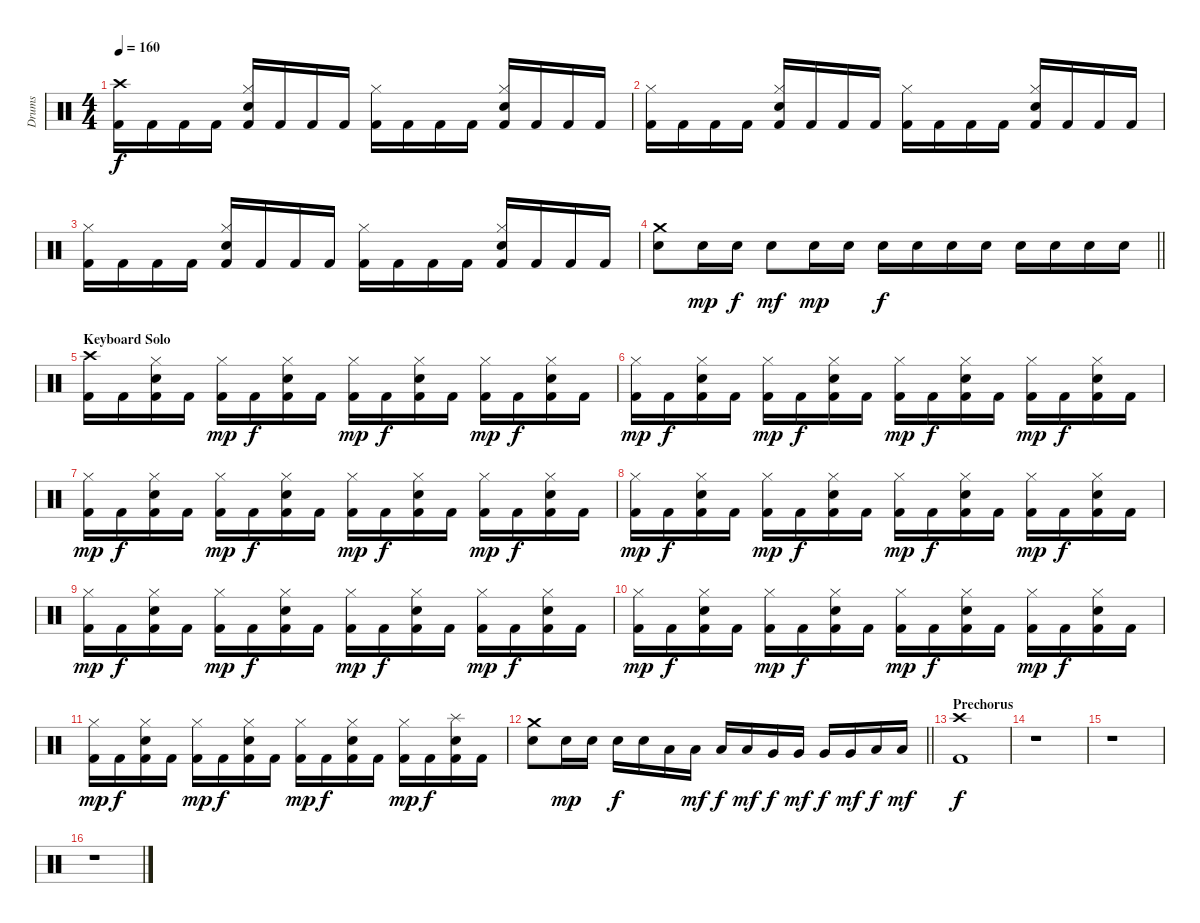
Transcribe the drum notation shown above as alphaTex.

\track ("Drums" "Drums") {instrument percussion}
\staff {score}
\articulation defaults
\ts (4 4)
\tempo 160
\clef neutral
\ks c
("Kick (hit) 2" "Crash high (hit)").16{dy f} "Kick (hit) 2".16 "Kick (hit) 2".16 "Kick (hit) 2".16 ("Kick (hit) 2" "Hi-Hat (closed)" "Electric Snare (hit)").16 "Kick (hit) 2".16 "Kick (hit) 2".16 "Kick (hit) 2".16 ("Kick (hit) 2" "Hi-Hat (closed)").16 "Kick (hit) 2".16 "Kick (hit) 2".16 "Kick (hit) 2".16 ("Kick (hit) 2" "Hi-Hat (closed)" "Electric Snare (hit)").16 "Kick (hit) 2".16 "Kick (hit) 2".16 "Kick (hit) 2".16 |
("Kick (hit) 2" "Hi-Hat (closed)").16 "Kick (hit) 2".16 "Kick (hit) 2".16 "Kick (hit) 2".16 ("Kick (hit) 2" "Hi-Hat (closed)" "Electric Snare (hit)").16 "Kick (hit) 2".16 "Kick (hit) 2".16 "Kick (hit) 2".16 ("Kick (hit) 2" "Hi-Hat (closed)").16 "Kick (hit) 2".16 "Kick (hit) 2".16 "Kick (hit) 2".16 ("Kick (hit) 2" "Hi-Hat (closed)" "Electric Snare (hit)").16 "Kick (hit) 2".16 "Kick (hit) 2".16 "Kick (hit) 2".16 |
("Kick (hit) 2" "Hi-Hat (closed)").16 "Kick (hit) 2".16 "Kick (hit) 2".16 "Kick (hit) 2".16 ("Kick (hit) 2" "Hi-Hat (closed)" "Electric Snare (hit)").16 "Kick (hit) 2".16 "Kick (hit) 2".16 "Kick (hit) 2".16 ("Kick (hit) 2" "Hi-Hat (closed)").16 "Kick (hit) 2".16 "Kick (hit) 2".16 "Kick (hit) 2".16 ("Kick (hit) 2" "Hi-Hat (closed)" "Electric Snare (hit)").16 "Kick (hit) 2".16 "Kick (hit) 2".16 "Kick (hit) 2".16 |
\barLineRight lightlight
("Crash medium (hit)" "Electric Snare (hit)").8 "Electric Snare (hit)".16{dy mp} "Electric Snare (hit)".16{dy f} "Electric Snare (hit)".8{dy mf} "Electric Snare (hit)".16{dy mp} "Electric Snare (hit)".16 "Electric Snare (hit)".16{dy f} "Electric Snare (hit)".16 "Electric Snare (hit)".16 "Electric Snare (hit)".16 "Electric Snare (hit)".16 "Electric Snare (hit)".16 "Electric Snare (hit)".16 "Electric Snare (hit)".16 |
\section ("" "Keyboard Solo")
("Kick (hit) 2" "Crash high (hit)").16 "Kick (hit) 2".16 ("Kick (hit) 2" "Hi-Hat (closed)" "Electric Snare (hit)").16 "Kick (hit) 2".16 ("Kick (hit) 2" "Hi-Hat (closed)").16{dy mp} "Kick (hit) 2".16{dy f} ("Kick (hit) 2" "Hi-Hat (closed)" "Electric Snare (hit)").16 "Kick (hit) 2".16 ("Kick (hit) 2" "Hi-Hat (closed)").16{dy mp} "Kick (hit) 2".16{dy f} ("Kick (hit) 2" "Hi-Hat (closed)" "Electric Snare (hit)").16 "Kick (hit) 2".16 ("Kick (hit) 2" "Hi-Hat (closed)").16{dy mp} "Kick (hit) 2".16{dy f} ("Kick (hit) 2" "Hi-Hat (closed)" "Electric Snare (hit)").16 "Kick (hit) 2".16 |
("Kick (hit) 2" "Hi-Hat (closed)").16{dy mp} "Kick (hit) 2".16{dy f} ("Kick (hit) 2" "Hi-Hat (closed)" "Electric Snare (hit)").16 "Kick (hit) 2".16 ("Kick (hit) 2" "Hi-Hat (closed)").16{dy mp} "Kick (hit) 2".16{dy f} ("Kick (hit) 2" "Hi-Hat (closed)" "Electric Snare (hit)").16 "Kick (hit) 2".16 ("Kick (hit) 2" "Hi-Hat (closed)").16{dy mp} "Kick (hit) 2".16{dy f} ("Kick (hit) 2" "Hi-Hat (closed)" "Electric Snare (hit)").16 "Kick (hit) 2".16 ("Kick (hit) 2" "Hi-Hat (closed)").16{dy mp} "Kick (hit) 2".16{dy f} ("Kick (hit) 2" "Hi-Hat (closed)" "Electric Snare (hit)").16 "Kick (hit) 2".16 |
("Kick (hit) 2" "Hi-Hat (closed)").16{dy mp} "Kick (hit) 2".16{dy f} ("Kick (hit) 2" "Hi-Hat (closed)" "Electric Snare (hit)").16 "Kick (hit) 2".16 ("Kick (hit) 2" "Hi-Hat (closed)").16{dy mp} "Kick (hit) 2".16{dy f} ("Kick (hit) 2" "Hi-Hat (closed)" "Electric Snare (hit)").16 "Kick (hit) 2".16 ("Kick (hit) 2" "Hi-Hat (closed)").16{dy mp} "Kick (hit) 2".16{dy f} ("Kick (hit) 2" "Hi-Hat (closed)" "Electric Snare (hit)").16 "Kick (hit) 2".16 ("Kick (hit) 2" "Hi-Hat (closed)").16{dy mp} "Kick (hit) 2".16{dy f} ("Kick (hit) 2" "Hi-Hat (closed)" "Electric Snare (hit)").16 "Kick (hit) 2".16 |
("Kick (hit) 2" "Hi-Hat (closed)").16{dy mp} "Kick (hit) 2".16{dy f} ("Kick (hit) 2" "Hi-Hat (closed)" "Electric Snare (hit)").16 "Kick (hit) 2".16 ("Kick (hit) 2" "Hi-Hat (closed)").16{dy mp} "Kick (hit) 2".16{dy f} ("Kick (hit) 2" "Hi-Hat (closed)" "Electric Snare (hit)").16 "Kick (hit) 2".16 ("Kick (hit) 2" "Hi-Hat (closed)").16{dy mp} "Kick (hit) 2".16{dy f} ("Kick (hit) 2" "Hi-Hat (closed)" "Electric Snare (hit)").16 "Kick (hit) 2".16 ("Kick (hit) 2" "Hi-Hat (closed)").16{dy mp} "Kick (hit) 2".16{dy f} ("Kick (hit) 2" "Hi-Hat (closed)" "Electric Snare (hit)").16 "Kick (hit) 2".16 |
("Kick (hit) 2" "Hi-Hat (closed)").16{dy mp} "Kick (hit) 2".16{dy f} ("Kick (hit) 2" "Hi-Hat (closed)" "Electric Snare (hit)").16 "Kick (hit) 2".16 ("Kick (hit) 2" "Hi-Hat (closed)").16{dy mp} "Kick (hit) 2".16{dy f} ("Kick (hit) 2" "Hi-Hat (closed)" "Electric Snare (hit)").16 "Kick (hit) 2".16 ("Kick (hit) 2" "Hi-Hat (closed)").16{dy mp} "Kick (hit) 2".16{dy f} ("Kick (hit) 2" "Hi-Hat (closed)" "Electric Snare (hit)").16 "Kick (hit) 2".16 ("Kick (hit) 2" "Hi-Hat (closed)").16{dy mp} "Kick (hit) 2".16{dy f} ("Kick (hit) 2" "Hi-Hat (closed)" "Electric Snare (hit)").16 "Kick (hit) 2".16 |
("Kick (hit) 2" "Hi-Hat (closed)").16{dy mp} "Kick (hit) 2".16{dy f} ("Kick (hit) 2" "Hi-Hat (closed)" "Electric Snare (hit)").16 "Kick (hit) 2".16 ("Kick (hit) 2" "Hi-Hat (closed)").16{dy mp} "Kick (hit) 2".16{dy f} ("Kick (hit) 2" "Hi-Hat (closed)" "Electric Snare (hit)").16 "Kick (hit) 2".16 ("Kick (hit) 2" "Hi-Hat (closed)").16{dy mp} "Kick (hit) 2".16{dy f} ("Kick (hit) 2" "Hi-Hat (closed)" "Electric Snare (hit)").16 "Kick (hit) 2".16 ("Kick (hit) 2" "Hi-Hat (closed)").16{dy mp} "Kick (hit) 2".16{dy f} ("Kick (hit) 2" "Hi-Hat (closed)" "Electric Snare (hit)").16 "Kick (hit) 2".16 |
("Kick (hit) 2" "Hi-Hat (closed)").16{dy mp} "Kick (hit) 2".16{dy f} ("Kick (hit) 2" "Hi-Hat (closed)" "Electric Snare (hit)").16 "Kick (hit) 2".16 ("Kick (hit) 2" "Hi-Hat (closed)").16{dy mp} "Kick (hit) 2".16{dy f} ("Kick (hit) 2" "Hi-Hat (closed)" "Electric Snare (hit)").16 "Kick (hit) 2".16 ("Kick (hit) 2" "Hi-Hat (closed)").16{dy mp} "Kick (hit) 2".16{dy f} ("Kick (hit) 2" "Hi-Hat (closed)" "Electric Snare (hit)").16 "Kick (hit) 2".16 ("Kick (hit) 2" "Hi-Hat (closed)").16{dy mp} "Kick (hit) 2".16{dy f} ("Kick (hit) 2" "Splash (hit)" "Electric Snare (hit)").16 "Kick (hit) 2".16 |
\barLineRight lightlight
("Crash medium (hit)" "Electric Snare (hit)").8 "Electric Snare (hit)".16{dy mp} "Electric Snare (hit)".16 "Electric Snare (hit)".16{dy f} "Electric Snare (hit)".16 "Low Tom (hit)".16 "Low Tom (hit)".16{dy mf} "Low Tom (hit)".16{dy f} "Low Tom (hit)".16{dy mf} "Very Low Tom (hit)".16{dy f} "Very Low Tom (hit)".16{dy mf} "Very Low Tom (hit)".16{dy f} "Very Low Tom (hit)".16{dy mf} "Low Floor Tom (hit)".16{dy f} "Low Floor Tom (hit)".16{dy mf} |
\section ("" "Prechorus")
("Kick (hit) 2" "Crash high (hit)").1{dy f} |
r.1 |
r.1 |
r.1
